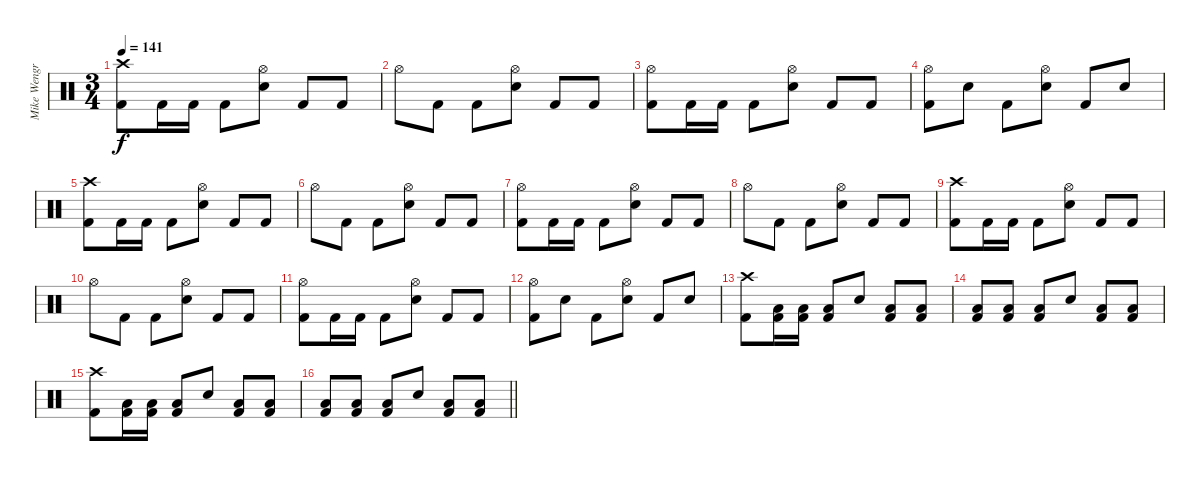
\track ("Mike Wengren (Drums)" "Mike Wengr") {instrument percussion}
\staff {score}
\articulation defaults
\ts (3 4)
\tempo 141
\clef neutral
\ks c
("Crash high (hit)" "Kick (hit) 2").8{dy f} "Kick (hit) 2".16 "Kick (hit) 2".16 "Kick (hit) 2".8 ("Hi-Hat (open)" "Electric Snare (hit)").8 "Kick (hit) 2".8 "Kick (hit) 2".8 |
"Hi-Hat (open)".8 "Kick (hit) 2".8 "Kick (hit) 2".8 ("Hi-Hat (open)" "Electric Snare (hit)").8 "Kick (hit) 2".8 "Kick (hit) 2".8 |
("Hi-Hat (open)" "Kick (hit) 2").8 "Kick (hit) 2".16 "Kick (hit) 2".16 "Kick (hit) 2".8 ("Hi-Hat (open)" "Electric Snare (hit)").8 "Kick (hit) 2".8 "Kick (hit) 2".8 |
("Hi-Hat (open)" "Kick (hit) 2").8 "Electric Snare (hit)".8 "Kick (hit) 2".8 ("Hi-Hat (open)" "Electric Snare (hit)").8 "Kick (hit) 2".8 "Electric Snare (hit)".8 |
("Crash high (hit)" "Kick (hit) 2").8 "Kick (hit) 2".16 "Kick (hit) 2".16 "Kick (hit) 2".8 ("Hi-Hat (open)" "Electric Snare (hit)").8 "Kick (hit) 2".8 "Kick (hit) 2".8 |
"Hi-Hat (open)".8 "Kick (hit) 2".8 "Kick (hit) 2".8 ("Hi-Hat (open)" "Electric Snare (hit)").8 "Kick (hit) 2".8 "Kick (hit) 2".8 |
("Hi-Hat (open)" "Kick (hit) 2").8 "Kick (hit) 2".16 "Kick (hit) 2".16 "Kick (hit) 2".8 ("Hi-Hat (open)" "Electric Snare (hit)").8 "Kick (hit) 2".8 "Kick (hit) 2".8 |
"Hi-Hat (open)".8 "Kick (hit) 2".8 "Kick (hit) 2".8 ("Hi-Hat (open)" "Electric Snare (hit)").8 "Kick (hit) 2".8 "Kick (hit) 2".8 |
("Crash high (hit)" "Kick (hit) 2").8 "Kick (hit) 2".16 "Kick (hit) 2".16 "Kick (hit) 2".8 ("Hi-Hat (open)" "Electric Snare (hit)").8 "Kick (hit) 2".8 "Kick (hit) 2".8 |
"Hi-Hat (open)".8 "Kick (hit) 2".8 "Kick (hit) 2".8 ("Hi-Hat (open)" "Electric Snare (hit)").8 "Kick (hit) 2".8 "Kick (hit) 2".8 |
("Hi-Hat (open)" "Kick (hit) 2").8 "Kick (hit) 2".16 "Kick (hit) 2".16 "Kick (hit) 2".8 ("Hi-Hat (open)" "Electric Snare (hit)").8 "Kick (hit) 2".8 "Kick (hit) 2".8 |
("Hi-Hat (open)" "Kick (hit) 2").8 "Electric Snare (hit)".8 "Kick (hit) 2".8 ("Hi-Hat (open)" "Electric Snare (hit)").8 "Kick (hit) 2".8 "Electric Snare (hit)".8 |
("Crash high (hit)" "Kick (hit) 2").8 ("Low Tom (hit)" "Kick (hit) 2").16 ("Low Tom (hit)" "Kick (hit) 2").16 ("Low Tom (hit)" "Kick (hit) 2").8 "Electric Snare (hit)".8 ("Low Tom (hit)" "Kick (hit) 2").8 ("Low Tom (hit)" "Kick (hit) 2").8 |
("Low Tom (hit)" "Kick (hit) 2").8 ("Low Tom (hit)" "Kick (hit) 2").8 ("Low Tom (hit)" "Kick (hit) 2").8 "Electric Snare (hit)".8 ("Low Tom (hit)" "Kick (hit) 2").8 ("Low Tom (hit)" "Kick (hit) 2").8 |
("Crash high (hit)" "Kick (hit) 2").8 ("Low Tom (hit)" "Kick (hit) 2").16 ("Low Tom (hit)" "Kick (hit) 2").16 ("Low Tom (hit)" "Kick (hit) 2").8 "Electric Snare (hit)".8 ("Low Tom (hit)" "Kick (hit) 2").8 ("Low Tom (hit)" "Kick (hit) 2").8 |
\barLineRight lightlight
("Low Tom (hit)" "Kick (hit) 2").8 ("Low Tom (hit)" "Kick (hit) 2").8 ("Low Tom (hit)" "Kick (hit) 2").8 "Electric Snare (hit)".8 ("Low Tom (hit)" "Kick (hit) 2").8 ("Low Tom (hit)" "Kick (hit) 2").8
